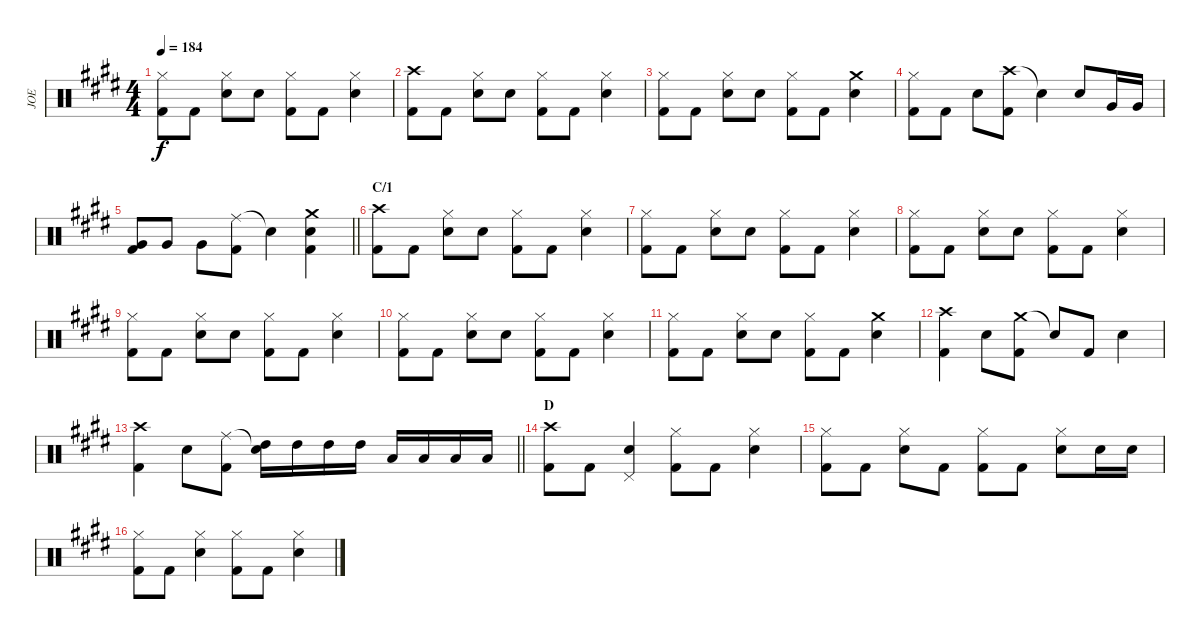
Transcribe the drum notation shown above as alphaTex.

\track ("JOE" "JOE") {instrument percussion}
\staff {score}
\articulation defaults
\ts (4 4)
\tempo 184
\clef neutral
\ks e
("Hi-Hat (closed)" "Kick (hit) 2").8{dy f} "Kick (hit) 2".8 ("Hi-Hat (closed)" "Snare (hit) 2").8 "Snare (hit) 2".8 ("Hi-Hat (closed)" "Kick (hit) 2").8 "Kick (hit) 2".8 ("Hi-Hat (closed)" "Snare (hit) 2").4 |
("Crash high (hit)" "Kick (hit) 2").8 "Kick (hit) 2".8 ("Hi-Hat (closed)" "Snare (hit) 2").8 "Snare (hit) 2".8 ("Hi-Hat (closed)" "Kick (hit) 2").8 "Kick (hit) 2".8 ("Hi-Hat (closed)" "Snare (hit) 2").4 |
("Hi-Hat (closed)" "Kick (hit) 2").8 "Kick (hit) 2".8 ("Hi-Hat (closed)" "Snare (hit) 2").8 "Snare (hit) 2".8 ("Hi-Hat (closed)" "Kick (hit) 2").8 "Kick (hit) 2".8 ("Crash medium (hit)" "Snare (hit) 2").4 |
("Hi-Hat (closed)" "Kick (hit) 2").8 "Kick (hit) 2".8 "Snare (hit) 2".8 ("Crash high (hit)" "Kick (hit) 2").8 "Snare (hit)"{t}.4 "Snare (hit) 2".8 "Very Low Tom (hit)".16 "Very Low Tom (hit)".16 |
\barLineRight lightlight
("Very Low Tom (hit)" "Kick (hit) 2").8 "Very Low Tom (hit)".8 "Very Low Tom (hit)".8 ("Ride (middle)" "Kick (hit) 2").8 "Snare (hit)"{t}.4 ("Crash medium (hit)" "Snare (hit) 2" "Kick (hit) 2").4 |
\section ("" "C/1")
("Crash high (hit)" "Kick (hit) 2").8 "Kick (hit) 2".8 ("Hi-Hat (closed)" "Snare (hit) 2").8 "Snare (hit) 2".8 ("Hi-Hat (closed)" "Kick (hit) 2").8 "Kick (hit) 2".8 ("Hi-Hat (closed)" "Snare (hit) 2").4 |
("Hi-Hat (closed)" "Kick (hit) 2").8 "Kick (hit) 2".8 ("Hi-Hat (closed)" "Snare (hit) 2").8 "Snare (hit) 2".8 ("Hi-Hat (closed)" "Kick (hit) 2").8 "Kick (hit) 2".8 ("Hi-Hat (closed)" "Snare (hit) 2").4 |
("Hi-Hat (closed)" "Kick (hit) 2").8 "Kick (hit) 2".8 ("Hi-Hat (closed)" "Snare (hit) 2").8 "Snare (hit) 2".8 ("Hi-Hat (closed)" "Kick (hit) 2").8 "Kick (hit) 2".8 ("Hi-Hat (closed)" "Snare (hit) 2").4 |
("Hi-Hat (closed)" "Kick (hit) 2").8 "Kick (hit) 2".8 ("Hi-Hat (closed)" "Snare (hit) 2").8 "Snare (hit) 2".8 ("Hi-Hat (closed)" "Kick (hit) 2").8 "Kick (hit) 2".8 ("Hi-Hat (closed)" "Snare (hit) 2").4 |
("Hi-Hat (closed)" "Kick (hit) 2").8 "Kick (hit) 2".8 ("Hi-Hat (closed)" "Snare (hit) 2").8 "Snare (hit) 2".8 ("Hi-Hat (closed)" "Kick (hit) 2").8 "Kick (hit) 2".8 ("Hi-Hat (closed)" "Snare (hit) 2").4 |
("Hi-Hat (closed)" "Kick (hit) 2").8 "Kick (hit) 2".8 ("Hi-Hat (closed)" "Snare (hit) 2").8 "Snare (hit) 2".8 ("Hi-Hat (closed)" "Kick (hit) 2").8 "Kick (hit) 2".8 ("Crash medium (hit)" "Snare (hit) 2").4 |
("Crash high (hit)" "Kick (hit) 2").4 "Snare (hit) 2".8 ("Crash medium (hit)" "Kick (hit) 2").8 "Snare (hit)"{t}.8 "Kick (hit) 2".8 "Snare (hit) 2".4 |
\barLineRight lightlight
("Crash high (hit)" "Kick (hit) 2").4 "Snare (hit) 2".8 ("Ride (middle)" "Kick (hit) 2").8 ("Snare (hit)"{t} "High Tom (hit)").16 "High Tom (hit)".16 "High Tom (hit)".16 "High Tom (hit)".16 "Low Tom (hit)".16 "Low Tom (hit)".16 "Low Tom (hit)".16 "Low Tom (hit)".16 |
\section ("" "D")
("Crash high (hit)" "Kick (hit) 2").8 "Kick (hit) 2".8 ("Pedal Hi-Hat (hit)" "Snare (hit) 2").4 ("Hi-Hat (closed)" "Kick (hit) 2").8 "Kick (hit) 2".8 ("Hi-Hat (closed)" "Snare (hit) 2").4 |
("Hi-Hat (closed)" "Kick (hit) 2").8 "Kick (hit) 2".8 ("Hi-Hat (closed)" "Snare (hit) 2").8 "Kick (hit) 2".8 ("Hi-Hat (closed)" "Kick (hit) 2").8 "Kick (hit) 2".8 ("Hi-Hat (closed)" "Snare (hit) 2").8 "Snare (hit) 2".16 "Snare (hit) 2".16 |
("Hi-Hat (closed)" "Kick (hit) 2").8 "Kick (hit) 2".8 ("Hi-Hat (closed)" "Snare (hit) 2").4 ("Hi-Hat (closed)" "Kick (hit) 2").8 "Kick (hit) 2".8 ("Hi-Hat (closed)" "Snare (hit) 2").4
